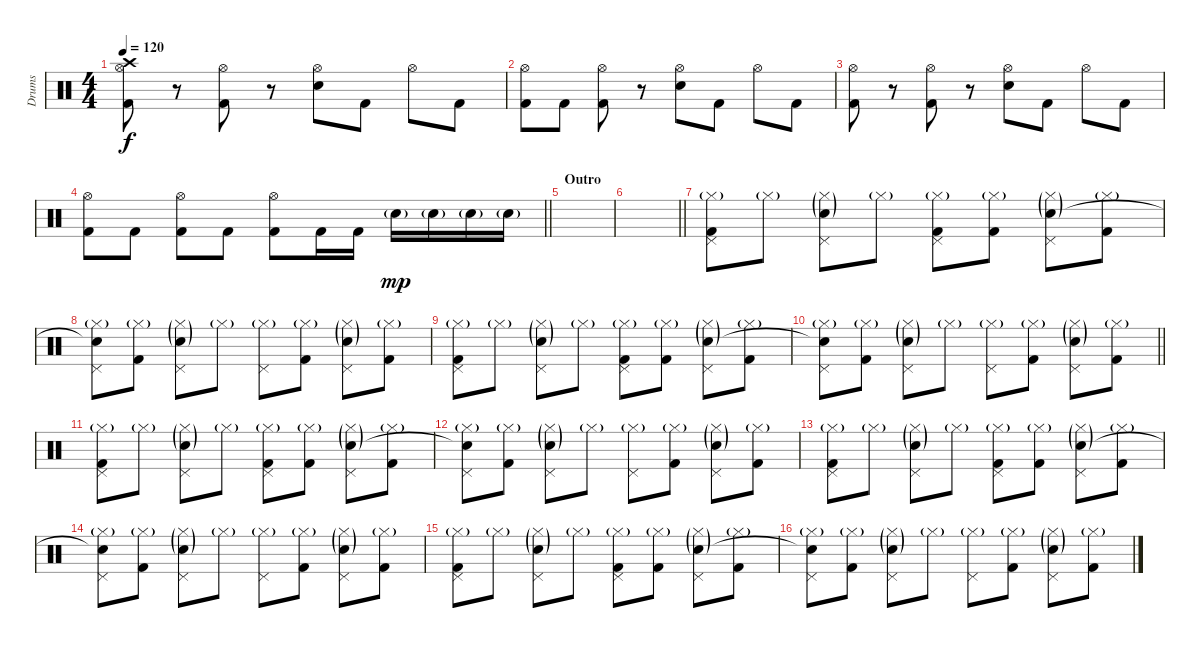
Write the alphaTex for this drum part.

\track ("Drums" "Drums") {instrument percussion}
\staff {score}
\articulation defaults
\ts (4 4)
\tempo 120
\clef neutral
\ks c
("Crash high (hit)" "Hi-Hat (open)" "Kick (hit) 2").8{dy f} r.8 ("Hi-Hat (open)" "Kick (hit) 2").8 r.8 ("Hi-Hat (open)" "Snare (hit) 2").8 "Kick (hit) 2".8 "Hi-Hat (open)".8 "Kick (hit) 2".8 |
("Hi-Hat (open)" "Kick (hit) 2").8 "Kick (hit) 2".8 ("Hi-Hat (open)" "Kick (hit) 2").8 r.8 ("Hi-Hat (open)" "Snare (hit) 2").8 "Kick (hit) 2".8 "Hi-Hat (open)".8 "Kick (hit) 2".8 |
("Hi-Hat (open)" "Kick (hit) 2").8 r.8 ("Hi-Hat (open)" "Kick (hit) 2").8 r.8 ("Hi-Hat (open)" "Snare (hit) 2").8 "Kick (hit) 2".8 "Hi-Hat (open)".8 "Kick (hit) 2".8 |
\barLineRight lightlight
("Hi-Hat (open)" "Kick (hit) 2").8 "Kick (hit) 2".8 ("Hi-Hat (open)" "Kick (hit) 2").8 "Kick (hit) 2".8 ("Hi-Hat (open)" "Kick (hit) 2").8 "Kick (hit) 2".16 "Kick (hit) 2".16 "Snare (hit) 2"{g}.16{dy mp} "Snare (hit) 2"{g}.16 "Electric Snare (hit)"{g}.16 "Electric Snare (hit)"{g}.16 |
\section ("" "Outro")
|
\barLineRight lightlight
|
("Pedal Hi-Hat (hit)" "Hi-Hat (closed)"{g} "Kick (hit) 2").8 "Hi-Hat (closed)"{g}.8 ("Pedal Hi-Hat (hit)" "Hi-Hat (closed)"{g} "Snare (hit) 2"{g}).8 "Hi-Hat (closed)"{g}.8 ("Pedal Hi-Hat (hit)" "Hi-Hat (closed)"{g} "Kick (hit) 2").8 ("Hi-Hat (closed)"{g} "Kick (hit) 2").8 ("Pedal Hi-Hat (hit)" "Hi-Hat (closed)"{g} "Snare (hit) 2"{g}).8 ("Hi-Hat (closed)"{g} "Kick (hit) 2").8 |
("Pedal Hi-Hat (hit)" "Hi-Hat (closed)"{g} "Snare (hit)"{t}).8 ("Hi-Hat (closed)"{g} "Kick (hit) 2").8 ("Pedal Hi-Hat (hit)" "Hi-Hat (closed)"{g} "Snare (hit) 2"{g}).8 "Hi-Hat (closed)"{g}.8 ("Pedal Hi-Hat (hit)" "Hi-Hat (closed)"{g}).8 ("Hi-Hat (closed)"{g} "Kick (hit) 2").8 ("Pedal Hi-Hat (hit)" "Hi-Hat (closed)"{g} "Snare (hit) 2"{g}).8 ("Hi-Hat (closed)"{g} "Kick (hit) 2").8 |
("Pedal Hi-Hat (hit)" "Hi-Hat (closed)"{g} "Kick (hit) 2").8 "Hi-Hat (closed)"{g}.8 ("Pedal Hi-Hat (hit)" "Hi-Hat (closed)"{g} "Snare (hit) 2"{g}).8 "Hi-Hat (closed)"{g}.8 ("Pedal Hi-Hat (hit)" "Hi-Hat (closed)"{g} "Kick (hit) 2").8 ("Hi-Hat (closed)"{g} "Kick (hit) 2").8 ("Pedal Hi-Hat (hit)" "Hi-Hat (closed)"{g} "Snare (hit) 2"{g}).8 ("Hi-Hat (closed)"{g} "Kick (hit) 2").8 |
\barLineRight lightlight
("Pedal Hi-Hat (hit)" "Hi-Hat (closed)"{g} "Snare (hit)"{t}).8 ("Hi-Hat (closed)"{g} "Kick (hit) 2").8 ("Pedal Hi-Hat (hit)" "Hi-Hat (closed)"{g} "Snare (hit) 2"{g}).8 "Hi-Hat (closed)"{g}.8 ("Pedal Hi-Hat (hit)" "Hi-Hat (closed)"{g}).8 ("Hi-Hat (closed)"{g} "Kick (hit) 2").8 ("Pedal Hi-Hat (hit)" "Hi-Hat (closed)"{g} "Snare (hit) 2"{g}).8 ("Hi-Hat (closed)"{g} "Kick (hit) 2").8 |
("Pedal Hi-Hat (hit)" "Hi-Hat (closed)"{g} "Kick (hit) 2").8 "Hi-Hat (closed)"{g}.8 ("Pedal Hi-Hat (hit)" "Hi-Hat (closed)"{g} "Snare (hit) 2"{g}).8 "Hi-Hat (closed)"{g}.8 ("Pedal Hi-Hat (hit)" "Hi-Hat (closed)"{g} "Kick (hit) 2").8 ("Hi-Hat (closed)"{g} "Kick (hit) 2").8 ("Pedal Hi-Hat (hit)" "Hi-Hat (closed)"{g} "Snare (hit) 2"{g}).8 ("Hi-Hat (closed)"{g} "Kick (hit) 2").8 |
("Pedal Hi-Hat (hit)" "Hi-Hat (closed)"{g} "Snare (hit)"{t}).8 ("Hi-Hat (closed)"{g} "Kick (hit) 2").8 ("Pedal Hi-Hat (hit)" "Hi-Hat (closed)"{g} "Snare (hit) 2"{g}).8 "Hi-Hat (closed)"{g}.8 ("Pedal Hi-Hat (hit)" "Hi-Hat (closed)"{g}).8 ("Hi-Hat (closed)"{g} "Kick (hit) 2").8 ("Pedal Hi-Hat (hit)" "Hi-Hat (closed)"{g} "Snare (hit) 2"{g}).8 ("Hi-Hat (closed)"{g} "Kick (hit) 2").8 |
("Pedal Hi-Hat (hit)" "Hi-Hat (closed)"{g} "Kick (hit) 2").8 "Hi-Hat (closed)"{g}.8 ("Pedal Hi-Hat (hit)" "Hi-Hat (closed)"{g} "Snare (hit) 2"{g}).8 "Hi-Hat (closed)"{g}.8 ("Pedal Hi-Hat (hit)" "Hi-Hat (closed)"{g} "Kick (hit) 2").8 ("Hi-Hat (closed)"{g} "Kick (hit) 2").8 ("Pedal Hi-Hat (hit)" "Hi-Hat (closed)"{g} "Snare (hit) 2"{g}).8 ("Hi-Hat (closed)"{g} "Kick (hit) 2").8 |
("Pedal Hi-Hat (hit)" "Hi-Hat (closed)"{g} "Snare (hit)"{t}).8 ("Hi-Hat (closed)"{g} "Kick (hit) 2").8 ("Pedal Hi-Hat (hit)" "Hi-Hat (closed)"{g} "Snare (hit) 2"{g}).8 "Hi-Hat (closed)"{g}.8 ("Pedal Hi-Hat (hit)" "Hi-Hat (closed)"{g}).8 ("Hi-Hat (closed)"{g} "Kick (hit) 2").8 ("Pedal Hi-Hat (hit)" "Hi-Hat (closed)"{g} "Snare (hit) 2"{g}).8 ("Hi-Hat (closed)"{g} "Kick (hit) 2").8 |
("Pedal Hi-Hat (hit)" "Hi-Hat (closed)"{g} "Kick (hit) 2").8 "Hi-Hat (closed)"{g}.8 ("Pedal Hi-Hat (hit)" "Hi-Hat (closed)"{g} "Snare (hit) 2"{g}).8 "Hi-Hat (closed)"{g}.8 ("Pedal Hi-Hat (hit)" "Hi-Hat (closed)"{g} "Kick (hit) 2").8 ("Hi-Hat (closed)"{g} "Kick (hit) 2").8 ("Pedal Hi-Hat (hit)" "Hi-Hat (closed)"{g} "Snare (hit) 2"{g}).8 ("Hi-Hat (closed)"{g} "Kick (hit) 2").8 |
("Pedal Hi-Hat (hit)" "Hi-Hat (closed)"{g} "Snare (hit)"{t}).8 ("Hi-Hat (closed)"{g} "Kick (hit) 2").8 ("Pedal Hi-Hat (hit)" "Hi-Hat (closed)"{g} "Snare (hit) 2"{g}).8 "Hi-Hat (closed)"{g}.8 ("Pedal Hi-Hat (hit)" "Hi-Hat (closed)"{g}).8 ("Hi-Hat (closed)"{g} "Kick (hit) 2").8 ("Pedal Hi-Hat (hit)" "Hi-Hat (closed)"{g} "Snare (hit) 2"{g}).8 ("Hi-Hat (closed)"{g} "Kick (hit) 2").8
